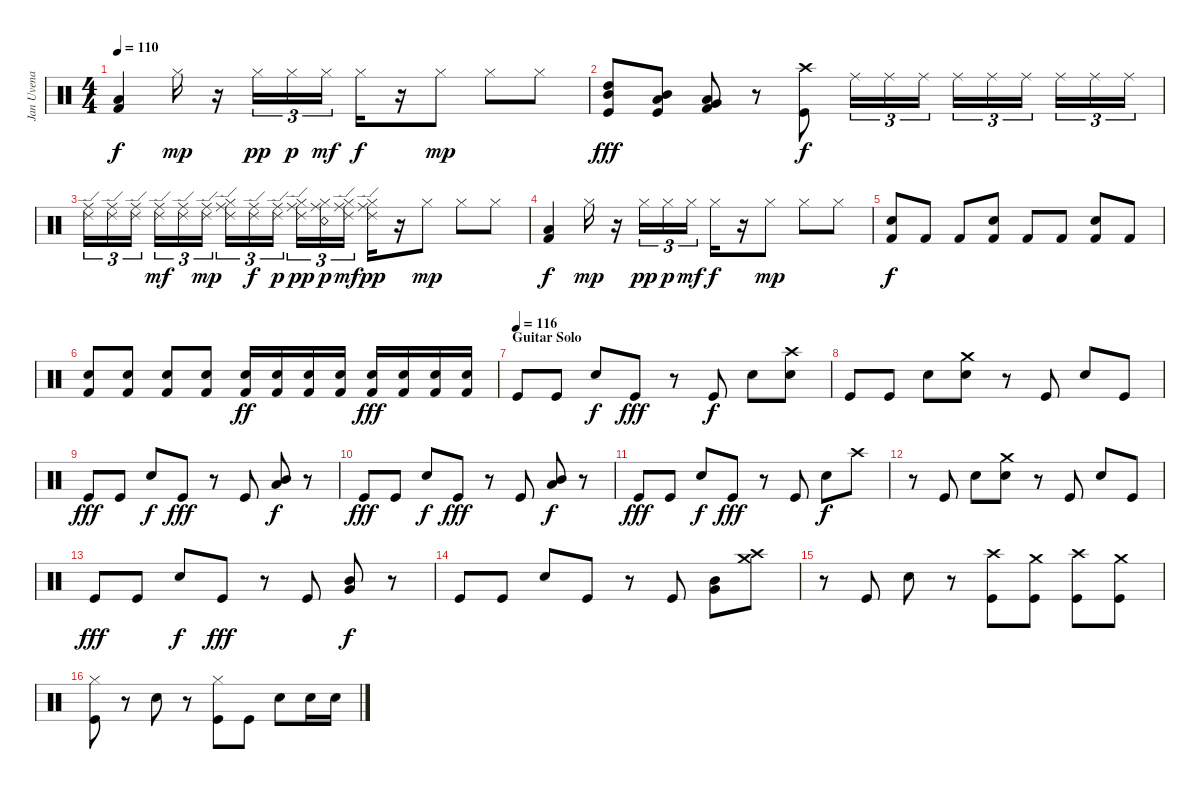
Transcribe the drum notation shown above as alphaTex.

\track ("Jan Uvena" "Jan Uvena") {instrument percussion}
\staff {score}
\articulation defaults
\ts (4 4)
\tempo 110
\clef neutral
\ks c
("Kick (hit) 2" "Low Floor Tom (hit)").4{dy f} "Hi-Hat (closed)".16{dy mp} r.16 "Hi-Hat (closed)".16{tu (3 2) dy pp} "Hi-Hat (closed)".16{tu (3 2) dy p} "Hi-Hat (closed)".16{tu (3 2) dy mf} "Hi-Hat (closed)".16{dy f} r.16 "Hi-Hat (closed)".8{dy mp} "Hi-Hat (closed)".8 "Hi-Hat (closed)".8 |
("High Tom (hit)" "Mid Tom (hit)" "Kick (hit)").8{dy fff} ("Mid Tom (hit)" "Low Tom (hit)" "Kick (hit)").8 ("Low Tom (hit)" "Very Low Tom (hit)" "Kick (hit) 2").8 r.8 ("Crash high (hit)" "Kick (hit)").8{dy f} "Ride (middle)".16{tu (3 2)} "Ride (middle)".16{tu (3 2)} "Ride (middle)".16{tu (3 2)} "Ride (middle)".16{tu (3 2)} "Ride (middle)".16{tu (3 2)} "Ride (middle)".16{tu (3 2)} "Ride (middle)".16{tu (3 2)} "Ride (middle)".16{tu (3 2)} "Ride (middle)".16{tu (3 2)} |
("Ride (middle)" "Ride (edge) 2").16{tu (3 2)} ("Ride (middle)" "Ride (edge) 2").16{tu (3 2)} ("Ride (middle)" "Ride (edge) 2").16{tu (3 2)} ("Ride (middle)" "Ride (edge) 2").16{tu (3 2) dy mf} ("Ride (middle)" "Ride (edge) 2").16{tu (3 2)} ("Ride (middle)" "Ride (edge) 2").16{tu (3 2) dy mp} ("Ride (middle)" "Ride (edge) 2" "Hi-Hat (closed)").16{tu (3 2)} ("Ride (middle)" "Ride (edge) 2").16{tu (3 2) dy f} ("Ride (middle)" "Ride (edge) 2").16{tu (3 2) dy p} ("Ride (middle)" "Ride (edge) 2" "Hi-Hat (closed)").16{tu (3 2) dy pp} ("Ride (middle)" "Snare (rim shot)" "Hi-Hat (closed)").16{tu (3 2) dy p} ("Ride (middle)" "Ride (edge) 2" "Hi-Hat (closed)").16{tu (3 2) dy mf} ("Ride (middle)" "Ride (edge) 2" "Hi-Hat (closed)").16{dy pp} r.16 "Hi-Hat (closed)".8{dy mp} "Hi-Hat (closed)".8 "Hi-Hat (closed)".8 |
("Kick (hit) 2" "Low Floor Tom (hit)").4{dy f} "Hi-Hat (closed)".16{dy mp} r.16 "Hi-Hat (closed)".16{tu (3 2) dy pp} "Hi-Hat (closed)".16{tu (3 2) dy p} "Hi-Hat (closed)".16{tu (3 2) dy mf} "Hi-Hat (closed)".16{dy f} r.16 "Hi-Hat (closed)".8{dy mp} "Hi-Hat (closed)".8 "Hi-Hat (closed)".8 |
("Snare (hit) 2" "Kick (hit) 2").8{dy f volume 14} "Kick (hit) 2".8 "Kick (hit) 2".8 ("Snare (hit) 2" "Kick (hit) 2").8 "Kick (hit) 2".8 "Kick (hit) 2".8 ("Snare (hit) 2" "Kick (hit) 2").8 "Kick (hit) 2".8 |
("Snare (hit) 2" "Kick (hit) 2").8 ("Snare (hit) 2" "Kick (hit) 2").8 ("Snare (hit) 2" "Kick (hit) 2").8 ("Snare (hit) 2" "Kick (hit) 2").8 ("Snare (hit) 2" "Kick (hit) 2").16{dy ff} ("Snare (hit) 2" "Kick (hit) 2").16 ("Snare (hit) 2" "Kick (hit) 2").16 ("Snare (hit) 2" "Kick (hit) 2").16 ("Snare (hit) 2" "Kick (hit) 2").16{dy fff} ("Snare (hit) 2" "Kick (hit) 2").16 ("Snare (hit) 2" "Kick (hit) 2").16 ("Snare (hit) 2" "Kick (hit) 2").16 |
\section ("" "Guitar Solo")
\tempo (116)
"Kick (hit)".8 "Kick (hit)".8 "Snare (hit) 2".8{dy f} "Kick (hit)".8{dy fff} r.8 "Kick (hit)".8{dy f} "Snare (hit) 2".8 ("Crash high (hit)" "Snare (hit) 2").8 |
"Kick (hit)".8 "Kick (hit)".8 "Snare (hit) 2".8 ("Crash medium (hit)" "Snare (hit) 2").8 r.8 "Kick (hit)".8 "Snare (hit) 2".8 "Kick (hit)".8 |
"Kick (hit)".8{dy fff} "Kick (hit)".8 "Snare (hit) 2".8{dy f} "Kick (hit)".8{dy fff} r.8 "Kick (hit)".8 ("Mid Tom (hit)" "Low Tom (hit)").8{dy f} r.8 |
"Kick (hit)".8{dy fff} "Kick (hit)".8 "Snare (hit) 2".8{dy f} "Kick (hit)".8{dy fff} r.8 "Kick (hit)".8 ("Mid Tom (hit)" "Low Tom (hit)").8{dy f} r.8 |
"Kick (hit)".8{dy fff} "Kick (hit)".8 "Snare (hit) 2".8{dy f} "Kick (hit)".8{dy fff} r.8 "Kick (hit)".8 "Snare (hit) 2".8{dy f} "Crash high (hit)".8 |
r.8 "Kick (hit)".8 "Snare (hit) 2".8 ("Crash medium (hit)" "Snare (hit) 2").8 r.8 "Kick (hit)".8 "Snare (hit) 2".8 "Kick (hit)".8 |
"Kick (hit)".8{dy fff} "Kick (hit)".8 "Snare (hit) 2".8{dy f} "Kick (hit)".8{dy fff} r.8 "Kick (hit)".8 ("Mid Tom (hit)" "Very Low Tom (hit)").8{dy f} r.8 |
"Kick (hit)".8 "Kick (hit)".8 "Snare (hit) 2".8 "Kick (hit)".8 r.8 "Kick (hit)".8 ("Mid Tom (hit)" "Very Low Tom (hit)").8 ("Crash medium (hit)" "Crash high (hit)").8 |
r.8 "Kick (hit)".8 "Snare (hit) 2".8 r.8 ("Crash high (hit)" "Kick (hit)").8 ("Crash medium (hit)" "Kick (hit)").8 ("Crash high (hit)" "Kick (hit)").8 ("Crash medium (hit)" "Kick (hit)").8 |
("Hi-Hat (closed)" "Kick (hit)").8 r.8 "Snare (hit) 2".8 r.8 ("Hi-Hat (closed)" "Kick (hit)").8 "Kick (hit)".8 "Snare (hit) 2".8 "Snare (hit) 2".16 "Snare (hit) 2".16
